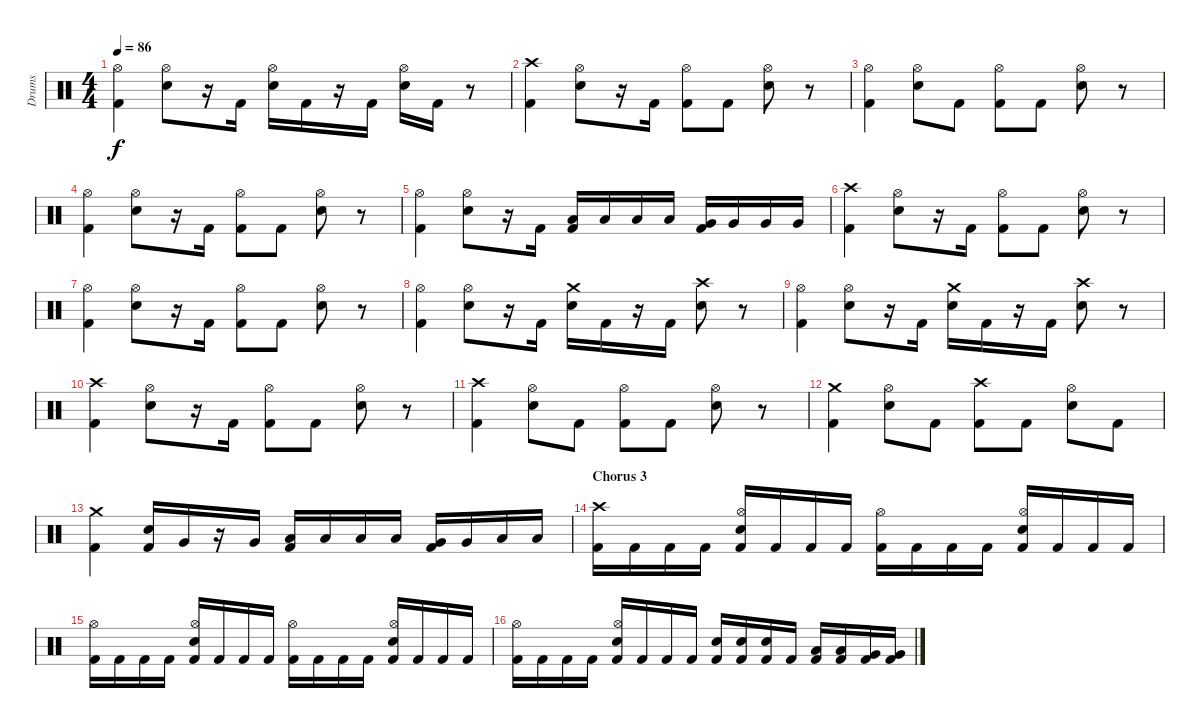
\track ("Drums" "Drums") {instrument percussion}
\staff {score}
\articulation defaults
\ts (4 4)
\tempo 86
\clef neutral
\ks c
("Kick (hit) 2" "Hi-Hat (open)").4{dy f} ("Hi-Hat (open)" "Electric Snare (hit)").8 r.16 "Kick (hit) 2".16 ("Hi-Hat (open)" "Electric Snare (hit)").16 "Kick (hit) 2".16 r.16 "Kick (hit) 2".16 ("Hi-Hat (open)" "Electric Snare (hit)").16 "Kick (hit) 2".16 r.8 |
("Kick (hit) 2" "Crash high (hit)").4 ("Hi-Hat (open)" "Electric Snare (hit)").8 r.16 "Kick (hit) 2".16 ("Kick (hit) 2" "Hi-Hat (open)").8 "Kick (hit) 2".8 ("Hi-Hat (open)" "Electric Snare (hit)").8 r.8 |
("Kick (hit) 2" "Hi-Hat (open)").4 ("Hi-Hat (open)" "Electric Snare (hit)").8 "Kick (hit) 2".8 ("Kick (hit) 2" "Hi-Hat (open)").8 "Kick (hit) 2".8 ("Hi-Hat (open)" "Electric Snare (hit)").8 r.8 |
("Kick (hit) 2" "Hi-Hat (open)").4 ("Hi-Hat (open)" "Electric Snare (hit)").8 r.16 "Kick (hit) 2".16 ("Kick (hit) 2" "Hi-Hat (open)").8 "Kick (hit) 2".8 ("Hi-Hat (open)" "Electric Snare (hit)").8 r.8 |
("Kick (hit) 2" "Hi-Hat (open)").4 ("Hi-Hat (open)" "Electric Snare (hit)").8 r.16 "Kick (hit) 2".16 ("Kick (hit) 2" "Low Tom (hit)").16 "Low Tom (hit)".16 "Low Tom (hit)".16 "Low Tom (hit)".16 ("Kick (hit) 2" "Very Low Tom (hit)").16 "Very Low Tom (hit)".16 "Very Low Tom (hit)".16 "Very Low Tom (hit)".16 |
("Kick (hit) 2" "Crash high (hit)").4 ("Hi-Hat (open)" "Electric Snare (hit)").8 r.16 "Kick (hit) 2".16 ("Kick (hit) 2" "Hi-Hat (open)").8 "Kick (hit) 2".8 ("Hi-Hat (open)" "Electric Snare (hit)").8 r.8 |
("Kick (hit) 2" "Hi-Hat (open)").4 ("Hi-Hat (open)" "Electric Snare (hit)").8 r.16 "Kick (hit) 2".16 ("Kick (hit) 2" "Hi-Hat (open)").8 "Kick (hit) 2".8 ("Hi-Hat (open)" "Electric Snare (hit)").8 r.8 |
("Kick (hit) 2" "Hi-Hat (open)").4 ("Hi-Hat (open)" "Electric Snare (hit)").8 r.16 "Kick (hit) 2".16 ("Electric Snare (hit)" "Crash medium (hit)").16 "Kick (hit) 2".16 r.16 "Kick (hit) 2".16 ("Electric Snare (hit)" "Crash high (hit)").8 r.8 |
("Kick (hit) 2" "Hi-Hat (open)").4 ("Hi-Hat (open)" "Electric Snare (hit)").8 r.16 "Kick (hit) 2".16 ("Electric Snare (hit)" "Crash medium (hit)").16 "Kick (hit) 2".16 r.16 "Kick (hit) 2".16 ("Electric Snare (hit)" "Crash high (hit)").8 r.8 |
("Kick (hit) 2" "Crash high (hit)").4 ("Hi-Hat (open)" "Electric Snare (hit)").8 r.16 "Kick (hit) 2".16 ("Kick (hit) 2" "Hi-Hat (open)").8 "Kick (hit) 2".8 ("Hi-Hat (open)" "Electric Snare (hit)").8 r.8 |
("Kick (hit) 2" "Crash high (hit)").4 ("Hi-Hat (open)" "Electric Snare (hit)").8 "Kick (hit) 2".8 ("Kick (hit) 2" "Hi-Hat (open)").8 "Kick (hit) 2".8 ("Hi-Hat (open)" "Electric Snare (hit)").8 r.8 |
("Kick (hit) 2" "Crash medium (hit)").4 ("Hi-Hat (open)" "Electric Snare (hit)").8 "Kick (hit) 2".8 ("Kick (hit) 2" "Crash high (hit)").8 "Kick (hit) 2".8 ("Hi-Hat (open)" "Electric Snare (hit)").8 "Kick (hit) 2".8 |
("Kick (hit) 2" "Crash medium (hit)").4 ("Kick (hit) 2" "Electric Snare (hit)").16 "Very Low Tom (hit)".16 r.16 "Very Low Tom (hit)".16 ("Kick (hit) 2" "Low Tom (hit)").16 "Low Tom (hit)".16 "Low Tom (hit)".16 "Low Tom (hit)".16 ("Kick (hit) 2" "Very Low Tom (hit)").16 "Very Low Tom (hit)".16 "Low Floor Tom (hit)".16 "Low Floor Tom (hit)".16 |
\section ("" "Chorus 3")
("Kick (hit) 2" "Crash high (hit)").16 "Kick (hit) 2".16 "Kick (hit) 2".16 "Kick (hit) 2".16 ("Kick (hit) 2" "Electric Snare (hit)" "Hi-Hat (open)").16 "Kick (hit) 2".16 "Kick (hit) 2".16 "Kick (hit) 2".16 ("Kick (hit) 2" "Hi-Hat (open)").16 "Kick (hit) 2".16 "Kick (hit) 2".16 "Kick (hit) 2".16 ("Kick (hit) 2" "Electric Snare (hit)" "Hi-Hat (open)").16 "Kick (hit) 2".16 "Kick (hit) 2".16 "Kick (hit) 2".16 |
("Kick (hit) 2" "Hi-Hat (open)").16 "Kick (hit) 2".16 "Kick (hit) 2".16 "Kick (hit) 2".16 ("Kick (hit) 2" "Electric Snare (hit)" "Hi-Hat (open)").16 "Kick (hit) 2".16 "Kick (hit) 2".16 "Kick (hit) 2".16 ("Kick (hit) 2" "Hi-Hat (open)").16 "Kick (hit) 2".16 "Kick (hit) 2".16 "Kick (hit) 2".16 ("Kick (hit) 2" "Electric Snare (hit)" "Hi-Hat (open)").16 "Kick (hit) 2".16 "Kick (hit) 2".16 "Kick (hit) 2".16 |
("Kick (hit) 2" "Hi-Hat (open)").16 "Kick (hit) 2".16 "Kick (hit) 2".16 "Kick (hit) 2".16 ("Kick (hit) 2" "Electric Snare (hit)" "Hi-Hat (open)").16 "Kick (hit) 2".16 "Kick (hit) 2".16 "Kick (hit) 2".16 ("Kick (hit) 2" "Electric Snare (hit)").16 ("Kick (hit) 2" "Electric Snare (hit)").16 ("Kick (hit) 2" "Electric Snare (hit)").16 "Kick (hit) 2".16 ("Kick (hit) 2" "Low Tom (hit)").16 ("Kick (hit) 2" "Low Tom (hit)").16 ("Kick (hit) 2" "Very Low Tom (hit)").16 ("Kick (hit) 2" "Very Low Tom (hit)").16
